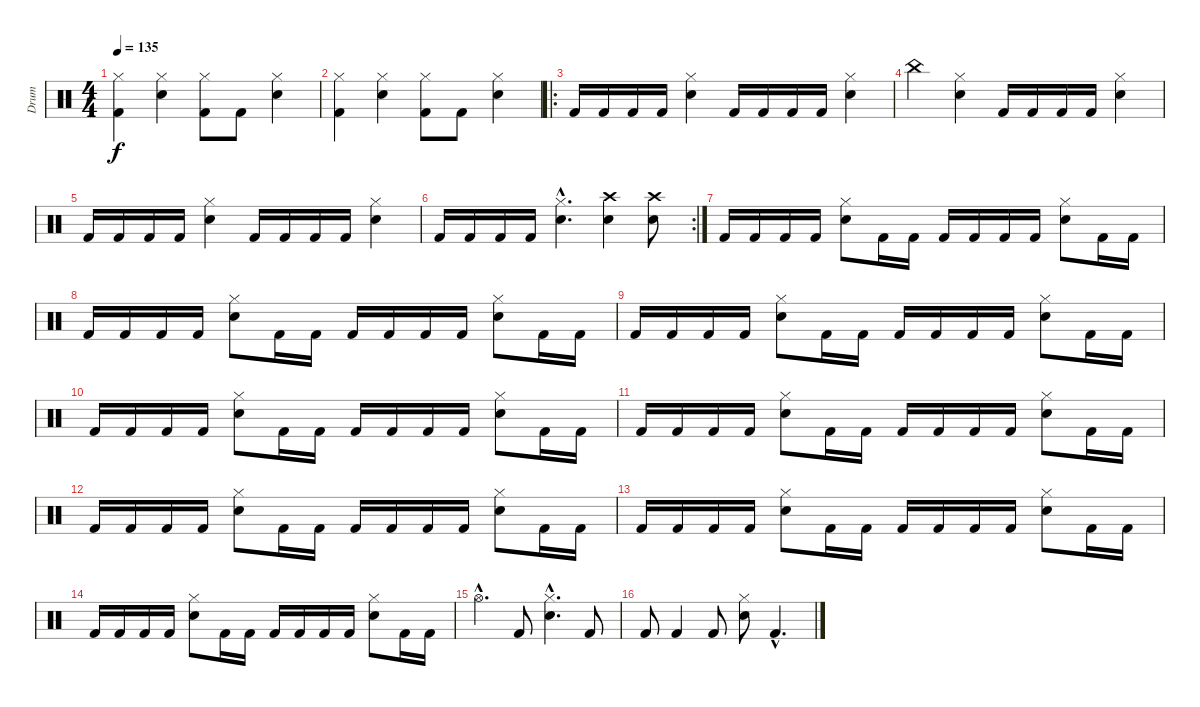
\track ("Drum" "Drum") {instrument percussion}
\staff {score}
\articulation defaults
\ts (4 4)
\tempo 135
\clef neutral
\ks c
("Kick (hit) 2" "Hi-Hat (closed)").4{dy f} ("Snare (hit) 2" "Hi-Hat (closed)").4 ("Kick (hit) 2" "Hi-Hat (closed)").8 "Kick (hit) 2".8 ("Snare (hit) 2" "Hi-Hat (closed)").4 |
("Kick (hit) 2" "Hi-Hat (closed)").4 ("Snare (hit) 2" "Hi-Hat (closed)").4 ("Kick (hit) 2" "Hi-Hat (closed)").8 "Kick (hit) 2".8 ("Snare (hit) 2" "Hi-Hat (closed)").4 |
\ro "Kick (hit) 2".16 "Kick (hit) 2".16 "Kick (hit) 2".16 "Kick (hit) 2".16
("Snare (hit) 2" "Hi-Hat (closed)").4 "Kick (hit) 2".16 "Kick (hit) 2".16 "Kick (hit) 2".16 "Kick (hit) 2".16 ("Snare (hit) 2" "Hi-Hat (closed)").4 |
"China (hit)".4 ("Snare (hit) 2" "Hi-Hat (closed)").4 "Kick (hit) 2".16 "Kick (hit) 2".16 "Kick (hit) 2".16 "Kick (hit) 2".16 ("Snare (hit) 2" "Hi-Hat (closed)").4 |
"Kick (hit) 2".16 "Kick (hit) 2".16 "Kick (hit) 2".16 "Kick (hit) 2".16 ("Snare (hit) 2" "Hi-Hat (closed)").4 "Kick (hit) 2".16 "Kick (hit) 2".16 "Kick (hit) 2".16 "Kick (hit) 2".16 ("Snare (hit) 2" "Hi-Hat (closed)").4 |
\rc 2 "Kick (hit) 2".16 "Kick (hit) 2".16 "Kick (hit) 2".16 "Kick (hit) 2".16
("Snare (hit) 2"{hac} "Hi-Hat (closed)"{hac}).4{d} ("Snare (hit) 2" "Crash high (hit)").4 ("Snare (hit) 2" "Crash high (hit)").8 |
"Kick (hit) 2".16 "Kick (hit) 2".16 "Kick (hit) 2".16 "Kick (hit) 2".16 ("Snare (hit) 2" "Hi-Hat (closed)").8 "Kick (hit) 2".16 "Kick (hit) 2".16 "Kick (hit) 2".16 "Kick (hit) 2".16 "Kick (hit) 2".16 "Kick (hit) 2".16 ("Snare (hit) 2" "Hi-Hat (closed)").8 "Kick (hit) 2".16 "Kick (hit) 2".16 |
"Kick (hit) 2".16 "Kick (hit) 2".16 "Kick (hit) 2".16 "Kick (hit) 2".16 ("Snare (hit) 2" "Hi-Hat (closed)").8 "Kick (hit) 2".16 "Kick (hit) 2".16 "Kick (hit) 2".16 "Kick (hit) 2".16 "Kick (hit) 2".16 "Kick (hit) 2".16 ("Snare (hit) 2" "Hi-Hat (closed)").8 "Kick (hit) 2".16 "Kick (hit) 2".16 |
"Kick (hit) 2".16 "Kick (hit) 2".16 "Kick (hit) 2".16 "Kick (hit) 2".16 ("Snare (hit) 2" "Hi-Hat (closed)").8 "Kick (hit) 2".16 "Kick (hit) 2".16 "Kick (hit) 2".16 "Kick (hit) 2".16 "Kick (hit) 2".16 "Kick (hit) 2".16 ("Snare (hit) 2" "Hi-Hat (closed)").8 "Kick (hit) 2".16 "Kick (hit) 2".16 |
"Kick (hit) 2".16 "Kick (hit) 2".16 "Kick (hit) 2".16 "Kick (hit) 2".16 ("Snare (hit) 2" "Hi-Hat (closed)").8 "Kick (hit) 2".16 "Kick (hit) 2".16 "Kick (hit) 2".16 "Kick (hit) 2".16 "Kick (hit) 2".16 "Kick (hit) 2".16 ("Snare (hit) 2" "Hi-Hat (closed)").8 "Kick (hit) 2".16 "Kick (hit) 2".16 |
"Kick (hit) 2".16 "Kick (hit) 2".16 "Kick (hit) 2".16 "Kick (hit) 2".16 ("Snare (hit) 2" "Hi-Hat (closed)").8 "Kick (hit) 2".16 "Kick (hit) 2".16 "Kick (hit) 2".16 "Kick (hit) 2".16 "Kick (hit) 2".16 "Kick (hit) 2".16 ("Snare (hit) 2" "Hi-Hat (closed)").8 "Kick (hit) 2".16 "Kick (hit) 2".16 |
"Kick (hit) 2".16 "Kick (hit) 2".16 "Kick (hit) 2".16 "Kick (hit) 2".16 ("Snare (hit) 2" "Hi-Hat (closed)").8 "Kick (hit) 2".16 "Kick (hit) 2".16 "Kick (hit) 2".16 "Kick (hit) 2".16 "Kick (hit) 2".16 "Kick (hit) 2".16 ("Snare (hit) 2" "Hi-Hat (closed)").8 "Kick (hit) 2".16 "Kick (hit) 2".16 |
"Kick (hit) 2".16 "Kick (hit) 2".16 "Kick (hit) 2".16 "Kick (hit) 2".16 ("Snare (hit) 2" "Hi-Hat (closed)").8 "Kick (hit) 2".16 "Kick (hit) 2".16 "Kick (hit) 2".16 "Kick (hit) 2".16 "Kick (hit) 2".16 "Kick (hit) 2".16 ("Snare (hit) 2" "Hi-Hat (closed)").8 "Kick (hit) 2".16 "Kick (hit) 2".16 |
"Kick (hit) 2".16 "Kick (hit) 2".16 "Kick (hit) 2".16 "Kick (hit) 2".16 ("Snare (hit) 2" "Hi-Hat (closed)").8 "Kick (hit) 2".16 "Kick (hit) 2".16 "Kick (hit) 2".16 "Kick (hit) 2".16 "Kick (hit) 2".16 "Kick (hit) 2".16 ("Snare (hit) 2" "Hi-Hat (closed)").8 "Kick (hit) 2".16 "Kick (hit) 2".16 |
"Hi-Hat (open)"{hac}.4{d} "Kick (hit) 2".8 ("Snare (hit) 2"{hac} "Hi-Hat (closed)"{hac}).4{d} "Kick (hit) 2".8 |
"Kick (hit) 2".8 "Kick (hit) 2".4 "Kick (hit) 2".8 ("Electric Snare (hit)" "Hi-Hat (closed)").8 "Kick (hit) 2"{hac}.4{d}
